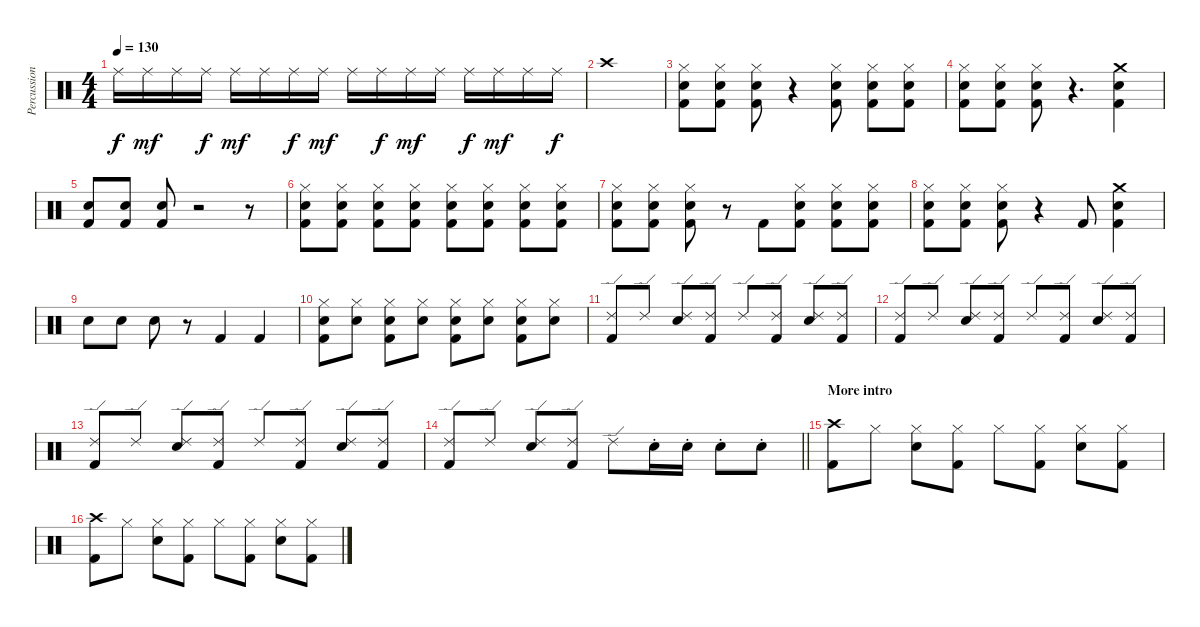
\track ("Percussion" "Percussion") {instrument percussion}
\staff {score}
\articulation defaults
\ts (4 4)
\tempo 130
\clef neutral
\ks c "Ride (middle)".16{dy f} "Ride (middle)".16{dy mf} "Ride (middle)".16 "Ride (middle)".16{dy f} "Ride (middle)".16{dy mf} "Ride (middle)".16 "Ride (middle)".16{dy f} "Ride (middle)".16{dy mf} "Ride (middle)".16 "Ride (middle)".16{dy f} "Ride (middle)".16{dy mf} "Ride (middle)".16 "Ride (middle)".16{dy f} "Ride (middle)".16{dy mf} "Ride (middle)".16 "Ride (middle)".16{dy f}
|
"Crash high (hit)".1 |
("Hi-Hat (closed)" "Snare (hit) 2" "Kick (hit) 2").8 ("Hi-Hat (closed)" "Snare (hit) 2" "Kick (hit) 2").8 ("Hi-Hat (closed)" "Snare (hit) 2" "Kick (hit) 2").8 r.4 ("Hi-Hat (closed)" "Snare (hit) 2" "Kick (hit) 2").8 ("Hi-Hat (closed)" "Snare (hit) 2" "Kick (hit) 2").8 ("Hi-Hat (closed)" "Snare (hit) 2" "Kick (hit) 2").8 |
("Hi-Hat (closed)" "Snare (hit) 2" "Kick (hit) 2").8 ("Hi-Hat (closed)" "Snare (hit) 2" "Kick (hit) 2").8 ("Hi-Hat (closed)" "Snare (hit) 2" "Kick (hit) 2").8 r.4{d} ("Crash medium (hit)" "Snare (hit) 2" "Kick (hit) 2").4 |
("Snare (hit) 2" "Kick (hit) 2").8 ("Snare (hit) 2" "Kick (hit) 2").8 ("Snare (hit) 2" "Kick (hit) 2").8 r.2 r.8 |
("Hi-Hat (closed)" "Snare (hit) 2" "Kick (hit) 2").8 ("Hi-Hat (closed)" "Snare (hit) 2" "Kick (hit) 2").8 ("Hi-Hat (closed)" "Snare (hit) 2" "Kick (hit) 2").8 ("Hi-Hat (closed)" "Snare (hit) 2" "Kick (hit) 2").8 ("Hi-Hat (closed)" "Snare (hit) 2" "Kick (hit) 2").8 ("Hi-Hat (closed)" "Snare (hit) 2" "Kick (hit) 2").8 ("Hi-Hat (closed)" "Snare (hit) 2" "Kick (hit) 2").8 ("Hi-Hat (closed)" "Snare (hit) 2" "Kick (hit) 2").8 |
("Hi-Hat (closed)" "Snare (hit) 2" "Kick (hit) 2").8 ("Hi-Hat (closed)" "Snare (hit) 2" "Kick (hit) 2").8 ("Hi-Hat (closed)" "Snare (hit) 2" "Kick (hit) 2").8 r.8 "Kick (hit) 2".8 ("Hi-Hat (closed)" "Snare (hit) 2" "Kick (hit) 2").8 ("Hi-Hat (closed)" "Snare (hit) 2" "Kick (hit) 2").8 ("Hi-Hat (closed)" "Snare (hit) 2" "Kick (hit) 2").8 |
("Hi-Hat (closed)" "Snare (hit) 2" "Kick (hit) 2").8 ("Hi-Hat (closed)" "Snare (hit) 2" "Kick (hit) 2").8 ("Hi-Hat (closed)" "Snare (hit) 2" "Kick (hit) 2").8 r.4 "Kick (hit) 2".8 ("Crash medium (hit)" "Snare (hit) 2" "Kick (hit) 2").4 |
"Snare (hit) 2".8 "Snare (hit) 2".8 "Snare (hit) 2".8 r.8 "Kick (hit) 2".4 "Kick (hit) 2".4 |
("Hi-Hat (closed)" "Snare (hit) 2" "Kick (hit) 2").8 ("Hi-Hat (closed)" "Snare (hit) 2").8 ("Hi-Hat (closed)" "Snare (hit) 2" "Kick (hit) 2").8 ("Hi-Hat (closed)" "Snare (hit) 2").8 ("Hi-Hat (closed)" "Snare (hit) 2" "Kick (hit) 2").8 ("Hi-Hat (closed)" "Snare (hit) 2").8 ("Hi-Hat (closed)" "Snare (hit) 2" "Kick (hit) 2").8 ("Hi-Hat (closed)" "Snare (hit) 2").8 |
("Ride (edge) 2" "Kick (hit) 2").8 "Ride (edge) 2".8 ("Ride (edge) 2" "Snare (hit) 2").8 ("Ride (edge) 2" "Kick (hit) 2").8 "Ride (edge) 2".8 ("Ride (edge) 2" "Kick (hit) 2").8 ("Ride (edge) 2" "Snare (hit) 2").8 ("Ride (edge) 2" "Kick (hit) 2").8 |
("Ride (edge) 2" "Kick (hit) 2").8 "Ride (edge) 2".8 ("Ride (edge) 2" "Snare (hit) 2").8 ("Ride (edge) 2" "Kick (hit) 2").8 "Ride (edge) 2".8 ("Ride (edge) 2" "Kick (hit) 2").8 ("Ride (edge) 2" "Snare (hit) 2").8 ("Ride (edge) 2" "Kick (hit) 2").8 |
("Ride (edge) 2" "Kick (hit) 2").8 "Ride (edge) 2".8 ("Ride (edge) 2" "Snare (hit) 2").8 ("Ride (edge) 2" "Kick (hit) 2").8 "Ride (edge) 2".8 ("Ride (edge) 2" "Kick (hit) 2").8 ("Ride (edge) 2" "Snare (hit) 2").8 ("Ride (edge) 2" "Kick (hit) 2").8 |
\barLineRight lightlight
("Ride (edge) 2" "Kick (hit) 2").8 "Ride (edge) 2".8 ("Ride (edge) 2" "Snare (hit) 2").8 ("Ride (edge) 2" "Kick (hit) 2").8 "Ride (edge) 2".8 "Snare (hit) 2"{st}.16 "Snare (hit) 2"{st}.16 "Snare (hit) 2"{st}.8 "Snare (hit) 2"{st}.8 |
\section ("" "More intro")
("Crash high (hit)" "Kick (hit) 2").8 "Hi-Hat (closed)".8 ("Hi-Hat (closed)" "Snare (hit) 2").8 ("Hi-Hat (closed)" "Kick (hit) 2").8 "Hi-Hat (closed)".8 ("Hi-Hat (closed)" "Kick (hit) 2").8 ("Hi-Hat (closed)" "Snare (hit) 2").8 ("Hi-Hat (closed)" "Kick (hit) 2").8 |
("Crash high (hit)" "Kick (hit) 2").8 "Hi-Hat (closed)".8 ("Hi-Hat (closed)" "Snare (hit) 2").8 ("Hi-Hat (closed)" "Kick (hit) 2").8 "Hi-Hat (closed)".8 ("Hi-Hat (closed)" "Kick (hit) 2").8 ("Hi-Hat (closed)" "Snare (hit) 2").8 ("Hi-Hat (closed)" "Kick (hit) 2").8
